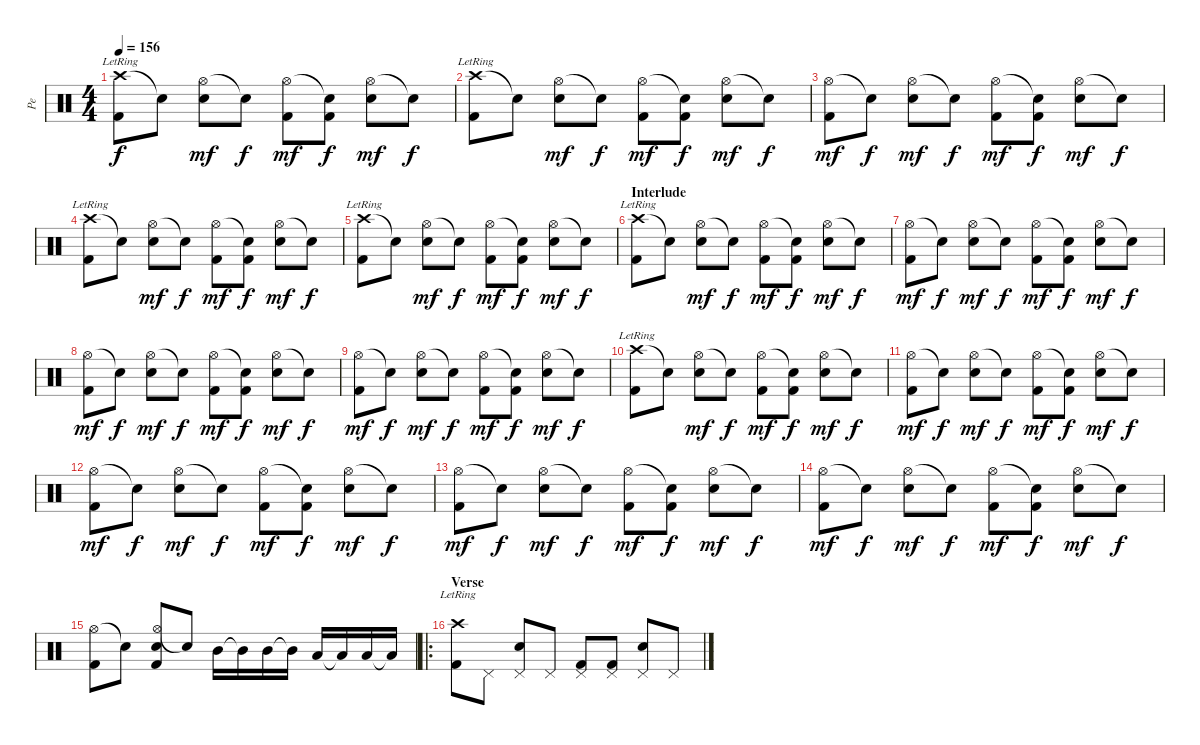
\track ("Pe" "Pe") {instrument percussion}
\staff {score}
\articulation defaults
\ts (4 4)
\tempo 156
\clef neutral
\ks c
("Crash high (hit)"{lr} "Kick (hit) 2").8{dy f} "Snare (hit)"{t}.8 ("Hi-Hat (open)" "Electric Snare (hit)").8{dy mf} "Snare (hit)"{t}.8{dy f} ("Hi-Hat (open)" "Kick (hit) 2").8{dy mf} ("Snare (hit)"{t} "Kick (hit) 2").8{dy f} ("Hi-Hat (open)" "Electric Snare (hit)").8{dy mf} "Snare (hit)"{t}.8{dy f} |
("Crash high (hit)"{lr} "Kick (hit) 2").8 "Snare (hit)"{t}.8 ("Hi-Hat (open)" "Electric Snare (hit)").8{dy mf} "Snare (hit)"{t}.8{dy f} ("Hi-Hat (open)" "Kick (hit) 2").8{dy mf} ("Snare (hit)"{t} "Kick (hit) 2").8{dy f} ("Hi-Hat (open)" "Electric Snare (hit)").8{dy mf} "Snare (hit)"{t}.8{dy f} |
("Hi-Hat (open)" "Kick (hit) 2").8{dy mf} "Snare (hit)"{t}.8{dy f} ("Hi-Hat (open)" "Electric Snare (hit)").8{dy mf} "Snare (hit)"{t}.8{dy f} ("Hi-Hat (open)" "Kick (hit) 2").8{dy mf} ("Snare (hit)"{t} "Kick (hit) 2").8{dy f} ("Hi-Hat (open)" "Electric Snare (hit)").8{dy mf} "Snare (hit)"{t}.8{dy f} |
("Crash high (hit)"{lr} "Kick (hit) 2").8 "Snare (hit)"{t}.8 ("Hi-Hat (open)" "Electric Snare (hit)").8{dy mf} "Snare (hit)"{t}.8{dy f} ("Hi-Hat (open)" "Kick (hit) 2").8{dy mf} ("Snare (hit)"{t} "Kick (hit) 2").8{dy f} ("Hi-Hat (open)" "Electric Snare (hit)").8{dy mf} "Snare (hit)"{t}.8{dy f} |
("Crash high (hit)"{lr} "Kick (hit) 2").8 "Snare (hit)"{t}.8 ("Hi-Hat (open)" "Electric Snare (hit)").8{dy mf} "Snare (hit)"{t}.8{dy f} ("Hi-Hat (open)" "Kick (hit) 2").8{dy mf} ("Snare (hit)"{t} "Kick (hit) 2").8{dy f} ("Hi-Hat (open)" "Electric Snare (hit)").8{dy mf} "Snare (hit)"{t}.8{dy f} |
\section ("" "Interlude")
("Crash high (hit)"{lr} "Kick (hit) 2").8 "Snare (hit)"{t}.8 ("Hi-Hat (open)" "Electric Snare (hit)").8{dy mf} "Snare (hit)"{t}.8{dy f} ("Hi-Hat (open)" "Kick (hit) 2").8{dy mf} ("Snare (hit)"{t} "Kick (hit) 2").8{dy f} ("Hi-Hat (open)" "Electric Snare (hit)").8{dy mf} "Snare (hit)"{t}.8{dy f} |
("Hi-Hat (open)" "Kick (hit) 2").8{dy mf} "Snare (hit)"{t}.8{dy f} ("Hi-Hat (open)" "Electric Snare (hit)").8{dy mf} "Snare (hit)"{t}.8{dy f} ("Hi-Hat (open)" "Kick (hit) 2").8{dy mf} ("Snare (hit)"{t} "Kick (hit) 2").8{dy f} ("Hi-Hat (open)" "Electric Snare (hit)").8{dy mf} "Snare (hit)"{t}.8{dy f} |
("Hi-Hat (open)" "Kick (hit) 2").8{dy mf} "Snare (hit)"{t}.8{dy f} ("Hi-Hat (open)" "Electric Snare (hit)").8{dy mf} "Snare (hit)"{t}.8{dy f} ("Hi-Hat (open)" "Kick (hit) 2").8{dy mf} ("Snare (hit)"{t} "Kick (hit) 2").8{dy f} ("Hi-Hat (open)" "Electric Snare (hit)").8{dy mf} "Snare (hit)"{t}.8{dy f} |
("Hi-Hat (open)" "Kick (hit) 2").8{dy mf} "Snare (hit)"{t}.8{dy f} ("Hi-Hat (open)" "Electric Snare (hit)").8{dy mf} "Snare (hit)"{t}.8{dy f} ("Hi-Hat (open)" "Kick (hit) 2").8{dy mf} ("Snare (hit)"{t} "Kick (hit) 2").8{dy f} ("Hi-Hat (open)" "Electric Snare (hit)").8{dy mf} "Snare (hit)"{t}.8{dy f} |
("Crash high (hit)"{lr} "Kick (hit) 2").8 "Snare (hit)"{t}.8 ("Hi-Hat (open)" "Electric Snare (hit)").8{dy mf} "Snare (hit)"{t}.8{dy f} ("Hi-Hat (open)" "Kick (hit) 2").8{dy mf} ("Snare (hit)"{t} "Kick (hit) 2").8{dy f} ("Hi-Hat (open)" "Electric Snare (hit)").8{dy mf} "Snare (hit)"{t}.8{dy f} |
("Hi-Hat (open)" "Kick (hit) 2").8{dy mf} "Snare (hit)"{t}.8{dy f} ("Hi-Hat (open)" "Electric Snare (hit)").8{dy mf} "Snare (hit)"{t}.8{dy f} ("Hi-Hat (open)" "Kick (hit) 2").8{dy mf} ("Snare (hit)"{t} "Kick (hit) 2").8{dy f} ("Hi-Hat (open)" "Electric Snare (hit)").8{dy mf} "Snare (hit)"{t}.8{dy f} |
("Hi-Hat (open)" "Kick (hit) 2").8{dy mf} "Snare (hit)"{t}.8{dy f} ("Hi-Hat (open)" "Electric Snare (hit)").8{dy mf} "Snare (hit)"{t}.8{dy f} ("Hi-Hat (open)" "Kick (hit) 2").8{dy mf} ("Snare (hit)"{t} "Kick (hit) 2").8{dy f} ("Hi-Hat (open)" "Electric Snare (hit)").8{dy mf} "Snare (hit)"{t}.8{dy f} |
("Hi-Hat (open)" "Kick (hit) 2").8{dy mf} "Snare (hit)"{t}.8{dy f} ("Hi-Hat (open)" "Electric Snare (hit)").8{dy mf} "Snare (hit)"{t}.8{dy f} ("Hi-Hat (open)" "Kick (hit) 2").8{dy mf} ("Snare (hit)"{t} "Kick (hit) 2").8{dy f} ("Hi-Hat (open)" "Electric Snare (hit)").8{dy mf} "Snare (hit)"{t}.8{dy f} |
("Hi-Hat (open)" "Kick (hit) 2").8{dy mf} "Snare (hit)"{t}.8{dy f} ("Hi-Hat (open)" "Electric Snare (hit)").8{dy mf} "Snare (hit)"{t}.8{dy f} ("Hi-Hat (open)" "Kick (hit) 2").8{dy mf} ("Snare (hit)"{t} "Kick (hit) 2").8{dy f} ("Hi-Hat (open)" "Electric Snare (hit)").8{dy mf} "Snare (hit)"{t}.8{dy f} |
("Hi-Hat (open)" "Kick (hit) 2").8 "Snare (hit)"{t}.8 ("Hi-Hat (open)" "Electric Snare (hit)" "Kick (hit) 2").8 "Snare (hit)"{t}.8 "Mid Tom (hit)".16 "Mid Tom (hit)"{t}.16 "Mid Tom (hit)".16 "Mid Tom (hit)"{t}.16 "Low Tom (hit)".16 "Low Tom (hit)"{t}.16 "Low Tom (hit)".16 "Low Tom (hit)"{t}.16 |
\ro
\section ("" "Verse")
("Crash high (hit)"{lr} "Kick (hit) 2").8 "Pedal Hi-Hat (hit)".8 ("Pedal Hi-Hat (hit)" "Electric Snare (hit)").8 "Pedal Hi-Hat (hit)".8 ("Pedal Hi-Hat (hit)" "Kick (hit) 2").8 ("Pedal Hi-Hat (hit)" "Kick (hit) 2").8 ("Pedal Hi-Hat (hit)" "Electric Snare (hit)").8 "Pedal Hi-Hat (hit)".8
